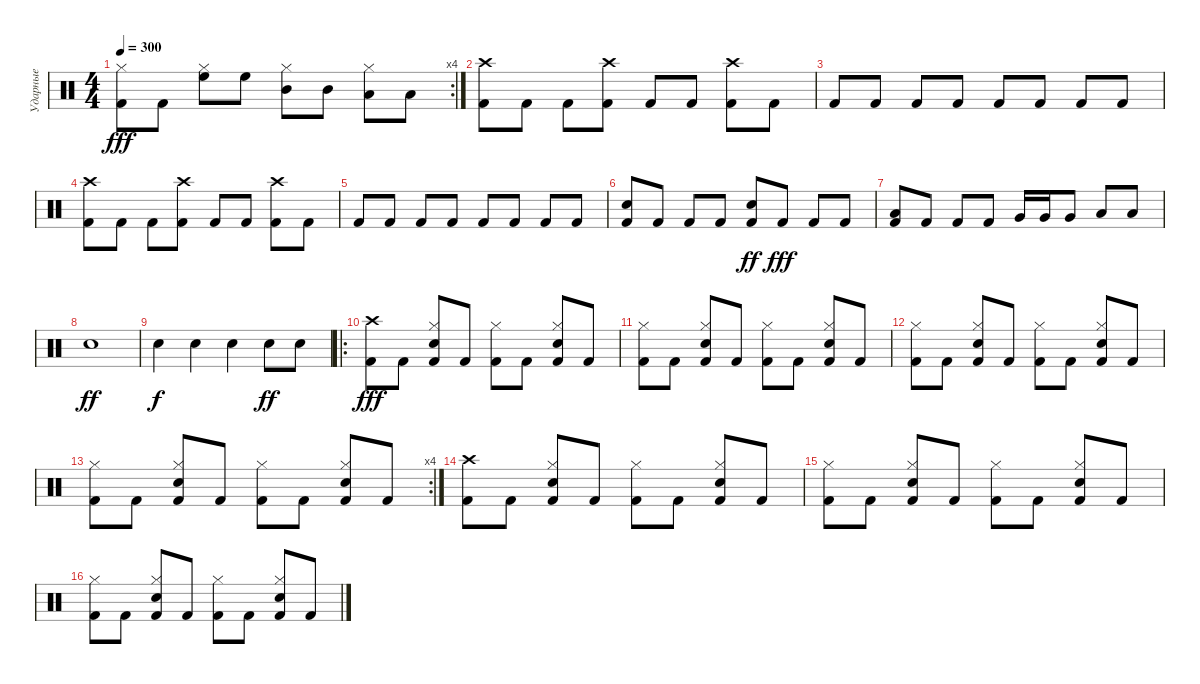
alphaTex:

\track ("Ударные" "Ударные") {instrument percussion}
\staff {score}
\articulation defaults
\rc 4
\ts (4 4)
\tempo 300
\clef neutral
\ks c
("Kick (hit) 2" "Hi-Hat (closed)").8{dy fff} "Kick (hit) 2".8 ("High Floor Tom (hit)" "Hi-Hat (closed)").8 "High Floor Tom (hit)".8 ("Mid Tom (hit)" "Hi-Hat (closed)").8 "Mid Tom (hit)".8 ("Low Tom (hit)" "Hi-Hat (closed)").8 "Low Tom (hit)".8 |
("Kick (hit) 2" "Crash high (hit)").8 "Kick (hit) 2".8 "Kick (hit) 2".8 ("Kick (hit) 2" "Crash high (hit)").8 "Kick (hit) 2".8 "Kick (hit) 2".8 ("Kick (hit) 2" "Crash high (hit)").8 "Kick (hit) 2".8 |
"Kick (hit) 2".8 "Kick (hit) 2".8 "Kick (hit) 2".8 "Kick (hit) 2".8 "Kick (hit) 2".8 "Kick (hit) 2".8 "Kick (hit) 2".8 "Kick (hit) 2".8 |
("Kick (hit) 2" "Crash high (hit)").8 "Kick (hit) 2".8 "Kick (hit) 2".8 ("Kick (hit) 2" "Crash high (hit)").8 "Kick (hit) 2".8 "Kick (hit) 2".8 ("Kick (hit) 2" "Crash high (hit)").8 "Kick (hit) 2".8 |
"Kick (hit) 2".8 "Kick (hit) 2".8 "Kick (hit) 2".8 "Kick (hit) 2".8 "Kick (hit) 2".8 "Kick (hit) 2".8 "Kick (hit) 2".8 "Kick (hit) 2".8 |
("Kick (hit) 2" "Snare (hit) 2").8 "Kick (hit) 2".8 "Kick (hit) 2".8 "Kick (hit) 2".8 ("Kick (hit) 2" "Electric Snare (hit)").8{dy ff} "Kick (hit) 2".8{dy fff} "Kick (hit) 2".8 "Kick (hit) 2".8 |
("Kick (hit) 2" "Low Floor Tom (hit)").8 "Kick (hit) 2".8 "Kick (hit) 2".8 "Kick (hit) 2".8 "Very Low Tom (hit)".16 "Very Low Tom (hit)".16 "Very Low Tom (hit)".8 "Low Floor Tom (hit)".8 "Low Floor Tom (hit)".8 |
"Snare (hit) 2".1{dy ff} |
"Snare (hit) 2".4{dy f} "Snare (hit) 2".4 "Snare (hit) 2".4 "Electric Snare (hit)".8{dy ff} "Electric Snare (hit)".8 |
\ro
("Kick (hit) 2" "Crash high (hit)").8{dy fff} "Kick (hit) 2".8 ("Kick (hit) 2" "Snare (hit) 2" "Hi-Hat (closed)").8 "Kick (hit) 2".8 ("Kick (hit) 2" "Hi-Hat (closed)").8 "Kick (hit) 2".8 ("Kick (hit) 2" "Snare (hit) 2" "Hi-Hat (closed)").8 "Kick (hit) 2".8 |
("Kick (hit) 2" "Hi-Hat (closed)").8 "Kick (hit) 2".8 ("Kick (hit) 2" "Snare (hit) 2" "Hi-Hat (closed)").8 "Kick (hit) 2".8 ("Kick (hit) 2" "Hi-Hat (closed)").8 "Kick (hit) 2".8 ("Kick (hit) 2" "Snare (hit) 2" "Hi-Hat (closed)").8 "Kick (hit) 2".8 |
("Kick (hit) 2" "Hi-Hat (closed)").8 "Kick (hit) 2".8 ("Kick (hit) 2" "Snare (hit) 2" "Hi-Hat (closed)").8 "Kick (hit) 2".8 ("Kick (hit) 2" "Hi-Hat (closed)").8 "Kick (hit) 2".8 ("Kick (hit) 2" "Snare (hit) 2" "Hi-Hat (closed)").8 "Kick (hit) 2".8 |
\rc 4
("Kick (hit) 2" "Hi-Hat (closed)").8 "Kick (hit) 2".8 ("Kick (hit) 2" "Snare (hit) 2" "Hi-Hat (closed)").8 "Kick (hit) 2".8 ("Kick (hit) 2" "Hi-Hat (closed)").8 "Kick (hit) 2".8 ("Kick (hit) 2" "Snare (hit) 2" "Hi-Hat (closed)").8 "Kick (hit) 2".8 |
("Kick (hit) 2" "Crash high (hit)").8 "Kick (hit) 2".8 ("Kick (hit) 2" "Snare (hit) 2" "Hi-Hat (closed)").8 "Kick (hit) 2".8 ("Kick (hit) 2" "Hi-Hat (closed)").8 "Kick (hit) 2".8 ("Kick (hit) 2" "Snare (hit) 2" "Hi-Hat (closed)").8 "Kick (hit) 2".8 |
("Kick (hit) 2" "Hi-Hat (closed)").8 "Kick (hit) 2".8 ("Kick (hit) 2" "Snare (hit) 2" "Hi-Hat (closed)").8 "Kick (hit) 2".8 ("Kick (hit) 2" "Hi-Hat (closed)").8 "Kick (hit) 2".8 ("Kick (hit) 2" "Snare (hit) 2" "Hi-Hat (closed)").8 "Kick (hit) 2".8 |
("Kick (hit) 2" "Hi-Hat (closed)").8 "Kick (hit) 2".8 ("Kick (hit) 2" "Snare (hit) 2" "Hi-Hat (closed)").8 "Kick (hit) 2".8 ("Kick (hit) 2" "Hi-Hat (closed)").8 "Kick (hit) 2".8 ("Kick (hit) 2" "Snare (hit) 2" "Hi-Hat (closed)").8 "Kick (hit) 2".8
